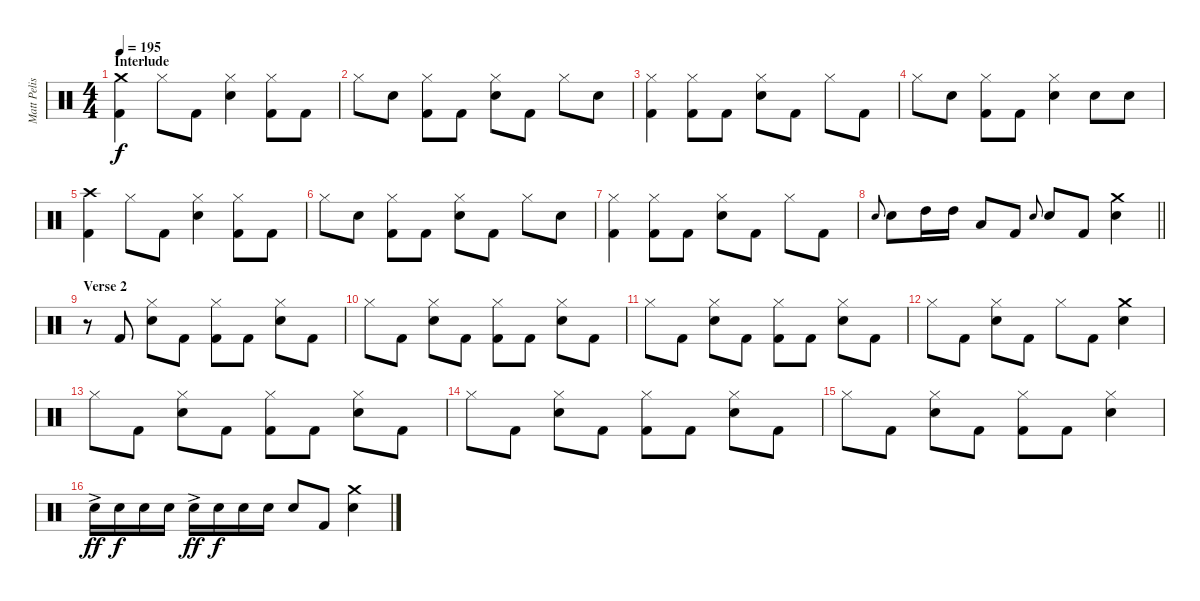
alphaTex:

\track ("Matt Pelissier" "Matt Pelis") {instrument percussion}
\staff {score}
\articulation defaults
\ts (4 4)
\section ("" "Interlude")
\tempo 195
\clef neutral
\ks c
("Crash medium (hit)" "Kick (hit) 2").4{dy f} "Hi-Hat (closed)".8 "Kick (hit) 2".8 ("Hi-Hat (closed)" "Electric Snare (hit)").4 ("Hi-Hat (closed)" "Kick (hit) 2").8 "Kick (hit) 2".8 |
"Hi-Hat (closed)".8 "Electric Snare (hit)".8 ("Hi-Hat (closed)" "Kick (hit) 2").8 "Kick (hit) 2".8 ("Hi-Hat (closed)" "Electric Snare (hit)").8 "Kick (hit) 2".8 "Hi-Hat (closed)".8 "Electric Snare (hit)".8 |
("Hi-Hat (closed)" "Kick (hit) 2").4 ("Hi-Hat (closed)" "Kick (hit) 2").8 "Kick (hit) 2".8 ("Hi-Hat (closed)" "Electric Snare (hit)").8 "Kick (hit) 2".8 "Hi-Hat (closed)".8 "Kick (hit) 2".8 |
"Hi-Hat (closed)".8 "Electric Snare (hit)".8 ("Hi-Hat (closed)" "Kick (hit) 2").8 "Kick (hit) 2".8 ("Hi-Hat (closed)" "Electric Snare (hit)").4 "Electric Snare (hit)".8 "Electric Snare (hit)".8 |
("Crash high (hit)" "Kick (hit) 2").4 "Hi-Hat (closed)".8 "Kick (hit) 2".8 ("Hi-Hat (closed)" "Electric Snare (hit)").4 ("Hi-Hat (closed)" "Kick (hit) 2").8 "Kick (hit) 2".8 |
"Hi-Hat (closed)".8 "Electric Snare (hit)".8 ("Hi-Hat (closed)" "Kick (hit) 2").8 "Kick (hit) 2".8 ("Hi-Hat (closed)" "Electric Snare (hit)").8 "Kick (hit) 2".8 "Hi-Hat (closed)".8 "Electric Snare (hit)".8 |
("Hi-Hat (closed)" "Kick (hit) 2").4 ("Hi-Hat (closed)" "Kick (hit) 2").8 "Kick (hit) 2".8 ("Hi-Hat (closed)" "Electric Snare (hit)").8 "Kick (hit) 2".8 "Hi-Hat (closed)".8 "Kick (hit) 2".8 |
\barLineRight lightlight "Electric Snare (hit)".8{gr onbeat} "Electric Snare (hit)".8 "High Tom (hit)".16 "High Tom (hit)".16 "Low Tom (hit)".8 "Kick (hit) 2".8 "Electric Snare (hit)".8{gr onbeat} "Electric Snare (hit)".8 "Kick (hit) 2".8
("Crash medium (hit)" "Electric Snare (hit)").4 |
\section ("" "Verse 2")
r.8 "Kick (hit) 2".8 ("Hi-Hat (closed)" "Electric Snare (hit)").8 "Kick (hit) 2".8 ("Hi-Hat (closed)" "Kick (hit) 2").8 "Kick (hit) 2".8 ("Hi-Hat (closed)" "Electric Snare (hit)").8 "Kick (hit) 2".8 |
"Hi-Hat (closed)".8 "Kick (hit) 2".8 ("Hi-Hat (closed)" "Electric Snare (hit)").8 "Kick (hit) 2".8 ("Hi-Hat (closed)" "Kick (hit) 2").8 "Kick (hit) 2".8 ("Hi-Hat (closed)" "Electric Snare (hit)").8 "Kick (hit) 2".8 |
"Hi-Hat (closed)".8 "Kick (hit) 2".8 ("Hi-Hat (closed)" "Electric Snare (hit)").8 "Kick (hit) 2".8 ("Hi-Hat (closed)" "Kick (hit) 2").8 "Kick (hit) 2".8 ("Hi-Hat (closed)" "Electric Snare (hit)").8 "Kick (hit) 2".8 |
"Hi-Hat (closed)".8 "Kick (hit) 2".8 ("Hi-Hat (closed)" "Electric Snare (hit)").8 "Kick (hit) 2".8 "Hi-Hat (closed)".8 "Kick (hit) 2".8 ("Crash medium (hit)" "Electric Snare (hit)").4 |
"Hi-Hat (closed)".8 "Kick (hit) 2".8 ("Hi-Hat (closed)" "Electric Snare (hit)").8 "Kick (hit) 2".8 ("Hi-Hat (closed)" "Kick (hit) 2").8 "Kick (hit) 2".8 ("Hi-Hat (closed)" "Electric Snare (hit)").8 "Kick (hit) 2".8 |
"Hi-Hat (closed)".8 "Kick (hit) 2".8 ("Hi-Hat (closed)" "Electric Snare (hit)").8 "Kick (hit) 2".8 ("Hi-Hat (closed)" "Kick (hit) 2").8 "Kick (hit) 2".8 ("Hi-Hat (closed)" "Electric Snare (hit)").8 "Kick (hit) 2".8 |
"Hi-Hat (closed)".8 "Kick (hit) 2".8 ("Hi-Hat (closed)" "Electric Snare (hit)").8 "Kick (hit) 2".8 ("Hi-Hat (closed)" "Kick (hit) 2").8 "Kick (hit) 2".8 ("Hi-Hat (closed)" "Electric Snare (hit)").4 |
"Electric Snare (hit)"{ac}.16{dy ff} "Electric Snare (hit)".16{dy f} "Electric Snare (hit)".16 "Electric Snare (hit)".16 "Electric Snare (hit)"{ac}.16{dy ff} "Electric Snare (hit)".16{dy f} "Electric Snare (hit)".16 "Electric Snare (hit)".16 "Electric Snare (hit)".8 "Kick (hit) 2".8 ("Crash medium (hit)" "Electric Snare (hit)").4
